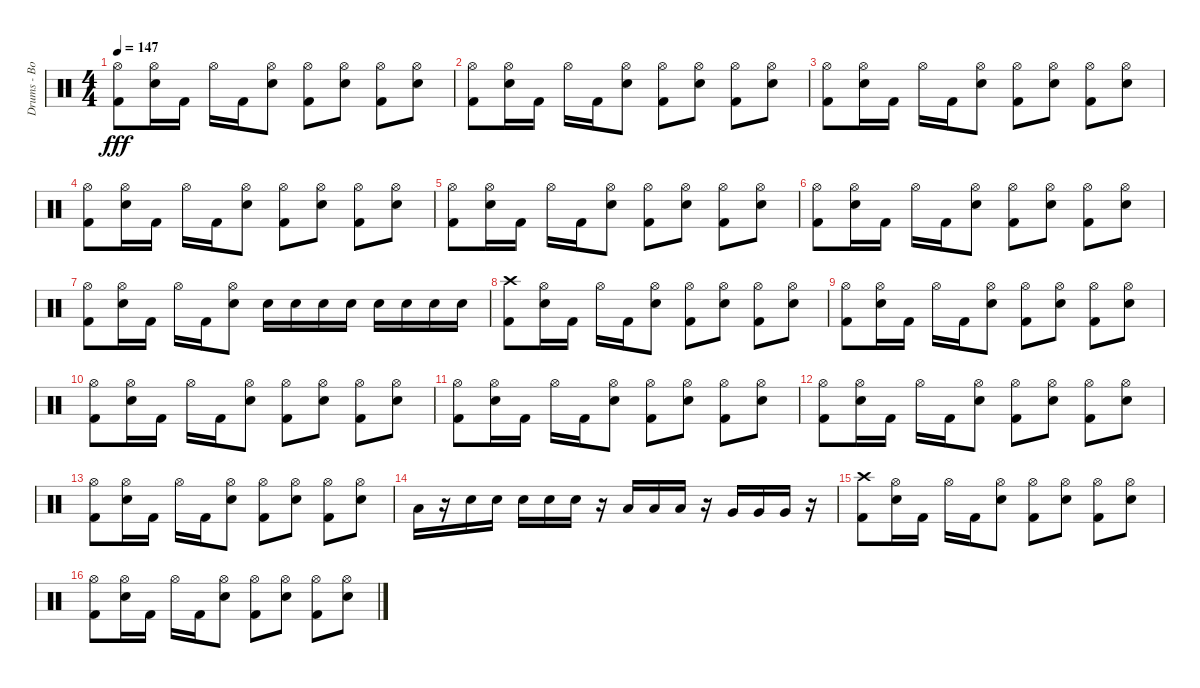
\track ("Drums - Bobby Schayer" "Drums - Bo") {instrument percussion}
\staff {score}
\articulation defaults
\ts (4 4)
\tempo 147
\clef neutral
\ks c
("Kick (hit) 2" "Hi-Hat (open)").8{dy fff} ("Electric Snare (hit)" "Hi-Hat (open)").16 "Kick (hit) 2".16 "Hi-Hat (open)".16 "Kick (hit) 2".16 ("Electric Snare (hit)" "Hi-Hat (open)").8 ("Kick (hit) 2" "Hi-Hat (open)").8 ("Electric Snare (hit)" "Hi-Hat (open)").8 ("Kick (hit) 2" "Hi-Hat (open)").8 ("Electric Snare (hit)" "Hi-Hat (open)").8 |
("Hi-Hat (open)" "Kick (hit) 2").8 ("Electric Snare (hit)" "Hi-Hat (open)").16 "Kick (hit) 2".16 "Hi-Hat (open)".16 "Kick (hit) 2".16 ("Electric Snare (hit)" "Hi-Hat (open)").8 ("Kick (hit) 2" "Hi-Hat (open)").8 ("Electric Snare (hit)" "Hi-Hat (open)").8 ("Kick (hit) 2" "Hi-Hat (open)").8 ("Electric Snare (hit)" "Hi-Hat (open)").8 |
("Hi-Hat (open)" "Kick (hit) 2").8 ("Electric Snare (hit)" "Hi-Hat (open)").16 "Kick (hit) 2".16 "Hi-Hat (open)".16 "Kick (hit) 2".16 ("Electric Snare (hit)" "Hi-Hat (open)").8 ("Kick (hit) 2" "Hi-Hat (open)").8 ("Electric Snare (hit)" "Hi-Hat (open)").8 ("Kick (hit) 2" "Hi-Hat (open)").8 ("Electric Snare (hit)" "Hi-Hat (open)").8 |
("Kick (hit) 2" "Hi-Hat (open)").8 ("Electric Snare (hit)" "Hi-Hat (open)").16 "Kick (hit) 2".16 "Hi-Hat (open)".16 "Kick (hit) 2".16 ("Electric Snare (hit)" "Hi-Hat (open)").8 ("Kick (hit) 2" "Hi-Hat (open)").8 ("Electric Snare (hit)" "Hi-Hat (open)").8 ("Kick (hit) 2" "Hi-Hat (open)").8 ("Electric Snare (hit)" "Hi-Hat (open)").8 |
("Kick (hit) 2" "Hi-Hat (open)").8 ("Electric Snare (hit)" "Hi-Hat (open)").16 "Kick (hit) 2".16 "Hi-Hat (open)".16 "Kick (hit) 2".16 ("Electric Snare (hit)" "Hi-Hat (open)").8 ("Kick (hit) 2" "Hi-Hat (open)").8 ("Electric Snare (hit)" "Hi-Hat (open)").8 ("Kick (hit) 2" "Hi-Hat (open)").8 ("Electric Snare (hit)" "Hi-Hat (open)").8 |
("Kick (hit) 2" "Hi-Hat (open)").8 ("Electric Snare (hit)" "Hi-Hat (open)").16 "Kick (hit) 2".16 "Hi-Hat (open)".16 "Kick (hit) 2".16 ("Electric Snare (hit)" "Hi-Hat (open)").8 ("Kick (hit) 2" "Hi-Hat (open)").8 ("Electric Snare (hit)" "Hi-Hat (open)").8 ("Kick (hit) 2" "Hi-Hat (open)").8 ("Electric Snare (hit)" "Hi-Hat (open)").8 |
("Kick (hit) 2" "Hi-Hat (open)").8 ("Electric Snare (hit)" "Hi-Hat (open)").16 "Kick (hit) 2".16 "Hi-Hat (open)".16 "Kick (hit) 2".16 ("Electric Snare (hit)" "Hi-Hat (open)").8 "Electric Snare (hit)".16 "Electric Snare (hit)".16 "Electric Snare (hit)".16 "Electric Snare (hit)".16 "Electric Snare (hit)".16 "Electric Snare (hit)".16 "Electric Snare (hit)".16 "Electric Snare (hit)".16 |
("Crash high (hit)" "Kick (hit) 2").8 ("Electric Snare (hit)" "Hi-Hat (open)").16 "Kick (hit) 2".16 "Hi-Hat (open)".16 "Kick (hit) 2".16 ("Electric Snare (hit)" "Hi-Hat (open)").8 ("Kick (hit) 2" "Hi-Hat (open)").8 ("Electric Snare (hit)" "Hi-Hat (open)").8 ("Kick (hit) 2" "Hi-Hat (open)").8 ("Electric Snare (hit)" "Hi-Hat (open)").8 |
("Kick (hit) 2" "Hi-Hat (open)").8 ("Electric Snare (hit)" "Hi-Hat (open)").16 "Kick (hit) 2".16 "Hi-Hat (open)".16 "Kick (hit) 2".16 ("Electric Snare (hit)" "Hi-Hat (open)").8 ("Kick (hit) 2" "Hi-Hat (open)").8 ("Electric Snare (hit)" "Hi-Hat (open)").8 ("Kick (hit) 2" "Hi-Hat (open)").8 ("Electric Snare (hit)" "Hi-Hat (open)").8 |
("Hi-Hat (open)" "Kick (hit) 2").8 ("Electric Snare (hit)" "Hi-Hat (open)").16 "Kick (hit) 2".16 "Hi-Hat (open)".16 "Kick (hit) 2".16 ("Electric Snare (hit)" "Hi-Hat (open)").8 ("Kick (hit) 2" "Hi-Hat (open)").8 ("Electric Snare (hit)" "Hi-Hat (open)").8 ("Kick (hit) 2" "Hi-Hat (open)").8 ("Electric Snare (hit)" "Hi-Hat (open)").8 |
("Hi-Hat (open)" "Kick (hit) 2").8 ("Electric Snare (hit)" "Hi-Hat (open)").16 "Kick (hit) 2".16 "Hi-Hat (open)".16 "Kick (hit) 2".16 ("Electric Snare (hit)" "Hi-Hat (open)").8 ("Kick (hit) 2" "Hi-Hat (open)").8 ("Electric Snare (hit)" "Hi-Hat (open)").8 ("Kick (hit) 2" "Hi-Hat (open)").8 ("Electric Snare (hit)" "Hi-Hat (open)").8 |
("Kick (hit) 2" "Hi-Hat (open)").8 ("Electric Snare (hit)" "Hi-Hat (open)").16 "Kick (hit) 2".16 "Hi-Hat (open)".16 "Kick (hit) 2".16 ("Electric Snare (hit)" "Hi-Hat (open)").8 ("Kick (hit) 2" "Hi-Hat (open)").8 ("Electric Snare (hit)" "Hi-Hat (open)").8 ("Kick (hit) 2" "Hi-Hat (open)").8 ("Electric Snare (hit)" "Hi-Hat (open)").8 |
("Kick (hit) 2" "Hi-Hat (open)").8 ("Electric Snare (hit)" "Hi-Hat (open)").16 "Kick (hit) 2".16 "Hi-Hat (open)".16 "Kick (hit) 2".16 ("Electric Snare (hit)" "Hi-Hat (open)").8 ("Kick (hit) 2" "Hi-Hat (open)").8 ("Electric Snare (hit)" "Hi-Hat (open)").8 ("Kick (hit) 2" "Hi-Hat (open)").8 ("Electric Snare (hit)" "Hi-Hat (open)").8 |
"Low Tom (hit)".16 r.16 "Electric Snare (hit)".16 "Electric Snare (hit)".16 "Electric Snare (hit)".16 "Electric Snare (hit)".16 "Electric Snare (hit)".16 r.16 "Low Tom (hit)".16 "Low Tom (hit)".16 "Low Tom (hit)".16 r.16 "Very Low Tom (hit)".16 "Very Low Tom (hit)".16 "Very Low Tom (hit)".16 r.16 |
("Kick (hit) 2" "Crash high (hit)").8 ("Electric Snare (hit)" "Hi-Hat (open)").16 "Kick (hit) 2".16 "Hi-Hat (open)".16 "Kick (hit) 2".16 ("Electric Snare (hit)" "Hi-Hat (open)").8 ("Hi-Hat (open)" "Kick (hit) 2").8 ("Hi-Hat (open)" "Electric Snare (hit)").8 ("Hi-Hat (open)" "Kick (hit) 2").8 ("Electric Snare (hit)" "Hi-Hat (open)").8 |
("Hi-Hat (open)" "Kick (hit) 2").8 ("Electric Snare (hit)" "Hi-Hat (open)").16 "Kick (hit) 2".16 "Hi-Hat (open)".16 "Kick (hit) 2".16 ("Electric Snare (hit)" "Hi-Hat (open)").8 ("Hi-Hat (open)" "Kick (hit) 2").8 ("Hi-Hat (open)" "Electric Snare (hit)").8 ("Kick (hit) 2" "Hi-Hat (open)").8 ("Electric Snare (hit)" "Hi-Hat (open)").8
